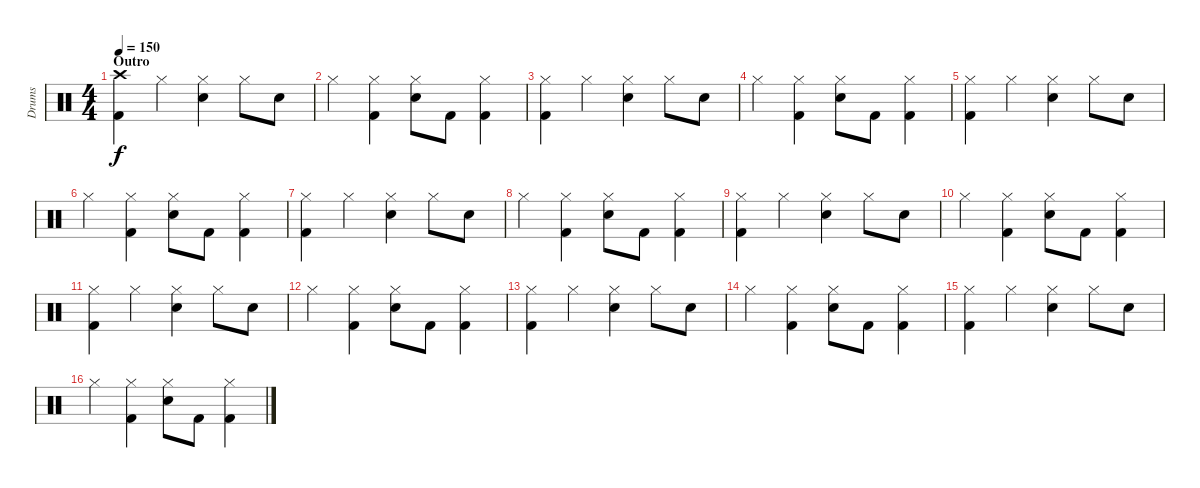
\track ("Drums" "Drums") {instrument percussion}
\staff {score}
\articulation defaults
\ts (4 4)
\section ("" "Outro")
\tempo 150
\clef neutral
\ks c
("Crash high (hit)" "Kick (hit) 2").4{dy f} "Hi-Hat (closed)".4 ("Hi-Hat (closed)" "Electric Snare (hit)").4 "Hi-Hat (closed)".8 "Electric Snare (hit)".8 |
"Hi-Hat (closed)".4 ("Hi-Hat (closed)" "Kick (hit) 2").4 ("Hi-Hat (closed)" "Electric Snare (hit)").8 "Kick (hit) 2".8 ("Hi-Hat (closed)" "Kick (hit) 2").4 |
("Hi-Hat (closed)" "Kick (hit) 2").4 "Hi-Hat (closed)".4 ("Hi-Hat (closed)" "Electric Snare (hit)").4 "Hi-Hat (closed)".8 "Electric Snare (hit)".8 |
"Hi-Hat (closed)".4 ("Hi-Hat (closed)" "Kick (hit) 2").4 ("Hi-Hat (closed)" "Electric Snare (hit)").8 "Kick (hit) 2".8 ("Hi-Hat (closed)" "Kick (hit) 2").4 |
("Hi-Hat (closed)" "Kick (hit) 2").4 "Hi-Hat (closed)".4 ("Hi-Hat (closed)" "Electric Snare (hit)").4 "Hi-Hat (closed)".8 "Electric Snare (hit)".8 |
"Hi-Hat (closed)".4 ("Hi-Hat (closed)" "Kick (hit) 2").4 ("Hi-Hat (closed)" "Electric Snare (hit)").8 "Kick (hit) 2".8 ("Hi-Hat (closed)" "Kick (hit) 2").4 |
("Hi-Hat (closed)" "Kick (hit) 2").4 "Hi-Hat (closed)".4 ("Hi-Hat (closed)" "Electric Snare (hit)").4 "Hi-Hat (closed)".8 "Electric Snare (hit)".8 |
"Hi-Hat (closed)".4 ("Hi-Hat (closed)" "Kick (hit) 2").4 ("Hi-Hat (closed)" "Electric Snare (hit)").8 "Kick (hit) 2".8 ("Hi-Hat (closed)" "Kick (hit) 2").4 |
("Hi-Hat (closed)" "Kick (hit) 2").4 "Hi-Hat (closed)".4 ("Hi-Hat (closed)" "Electric Snare (hit)").4 "Hi-Hat (closed)".8 "Electric Snare (hit)".8 |
"Hi-Hat (closed)".4 ("Hi-Hat (closed)" "Kick (hit) 2").4 ("Hi-Hat (closed)" "Electric Snare (hit)").8 "Kick (hit) 2".8 ("Hi-Hat (closed)" "Kick (hit) 2").4 |
("Hi-Hat (closed)" "Kick (hit) 2").4 "Hi-Hat (closed)".4 ("Hi-Hat (closed)" "Electric Snare (hit)").4 "Hi-Hat (closed)".8 "Electric Snare (hit)".8 |
"Hi-Hat (closed)".4 ("Hi-Hat (closed)" "Kick (hit) 2").4 ("Hi-Hat (closed)" "Electric Snare (hit)").8 "Kick (hit) 2".8 ("Hi-Hat (closed)" "Kick (hit) 2").4 |
("Hi-Hat (closed)" "Kick (hit) 2").4 "Hi-Hat (closed)".4 ("Hi-Hat (closed)" "Electric Snare (hit)").4 "Hi-Hat (closed)".8 "Electric Snare (hit)".8 |
"Hi-Hat (closed)".4 ("Hi-Hat (closed)" "Kick (hit) 2").4 ("Hi-Hat (closed)" "Electric Snare (hit)").8 "Kick (hit) 2".8 ("Hi-Hat (closed)" "Kick (hit) 2").4 |
("Hi-Hat (closed)" "Kick (hit) 2").4 "Hi-Hat (closed)".4 ("Hi-Hat (closed)" "Electric Snare (hit)").4 "Hi-Hat (closed)".8 "Electric Snare (hit)".8 |
"Hi-Hat (closed)".4 ("Hi-Hat (closed)" "Kick (hit) 2").4 ("Hi-Hat (closed)" "Electric Snare (hit)").8 "Kick (hit) 2".8 ("Hi-Hat (closed)" "Kick (hit) 2").4
